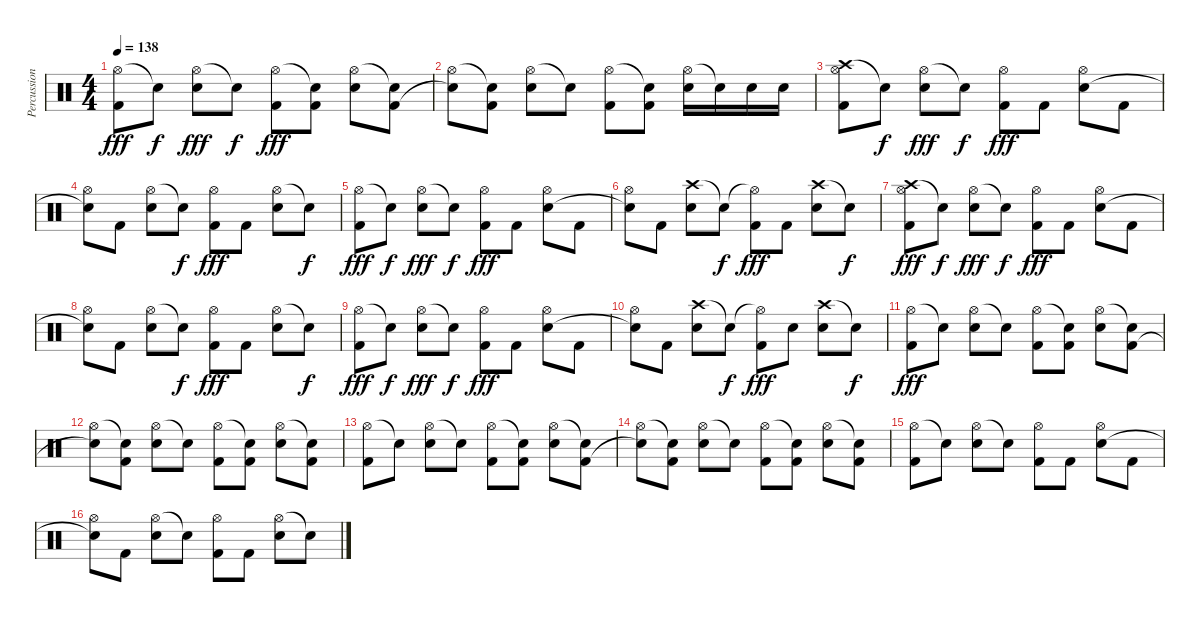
\track ("Percussion" "Percussion") {instrument percussion}
\staff {score}
\articulation defaults
\ts (4 4)
\tempo 138
\clef neutral
\ks c
("Hi-Hat (open)" "Kick (hit) 2").8{dy fff} "Snare (hit)"{t}.8{dy f} ("Hi-Hat (open)" "Electric Snare (hit)").8{dy fff} "Snare (hit)"{t}.8{dy f} ("Hi-Hat (open)" "Kick (hit) 2").8{dy fff} ("Snare (hit)"{t} "Kick (hit) 2").8 ("Hi-Hat (open)" "Electric Snare (hit)").8 ("Snare (hit)"{t} "Kick (hit) 2").8 |
("Hi-Hat (open)" "Snare (hit)"{t}).8 ("Snare (hit)"{t} "Kick (hit) 2").8 ("Hi-Hat (open)" "Electric Snare (hit)").8 "Snare (hit)"{t}.8 ("Hi-Hat (open)" "Kick (hit) 2").8 ("Snare (hit)"{t} "Kick (hit) 2").8 ("Hi-Hat (open)" "Electric Snare (hit)").16 "Snare (hit)"{t}.16 "Electric Snare (hit)".16 "Electric Snare (hit)".16 |
("Crash high (hit)" "Hi-Hat (open)" "Kick (hit) 2").8 "Snare (hit)"{t}.8{dy f} ("Hi-Hat (open)" "Electric Snare (hit)").8{dy fff} "Snare (hit)"{t}.8{dy f} ("Hi-Hat (open)" "Kick (hit) 2").8{dy fff} "Kick (hit) 2".8 ("Hi-Hat (open)" "Electric Snare (hit)").8 "Kick (hit) 2".8 |
("Hi-Hat (open)" "Snare (hit)"{t}).8 "Kick (hit) 2".8 ("Hi-Hat (open)" "Electric Snare (hit)").8 "Snare (hit)"{t}.8{dy f} ("Hi-Hat (open)" "Kick (hit) 2").8{dy fff} "Kick (hit) 2".8 ("Hi-Hat (open)" "Electric Snare (hit)").8 "Snare (hit)"{t}.8{dy f} |
("Hi-Hat (open)" "Kick (hit) 2").8{dy fff} "Snare (hit)"{t}.8{dy f} ("Hi-Hat (open)" "Electric Snare (hit)").8{dy fff} "Snare (hit)"{t}.8{dy f} ("Hi-Hat (open)" "Kick (hit) 2").8{dy fff} "Kick (hit) 2".8 ("Hi-Hat (open)" "Electric Snare (hit)").8 "Kick (hit) 2".8 |
("Hi-Hat (open)" "Snare (hit)"{t}).8 "Kick (hit) 2".8 ("Crash high (hit)" "Electric Snare (hit)").8 "Snare (hit)"{t}.8{dy f} ("Hi-Hat (open)"{t} "Kick (hit) 2").8{dy fff} "Kick (hit) 2".8 ("Crash high (hit)" "Electric Snare (hit)").8 "Snare (hit)"{t}.8{dy f} |
("Crash high (hit)" "Hi-Hat (open)" "Kick (hit) 2").8{dy fff} "Snare (hit)"{t}.8{dy f} ("Hi-Hat (open)" "Electric Snare (hit)").8{dy fff} "Snare (hit)"{t}.8{dy f} ("Hi-Hat (open)" "Kick (hit) 2").8{dy fff} "Kick (hit) 2".8 ("Hi-Hat (open)" "Electric Snare (hit)").8 "Kick (hit) 2".8 |
("Hi-Hat (open)" "Snare (hit)"{t}).8 "Kick (hit) 2".8 ("Hi-Hat (open)" "Electric Snare (hit)").8 "Snare (hit)"{t}.8{dy f} ("Hi-Hat (open)" "Kick (hit) 2").8{dy fff} "Kick (hit) 2".8 ("Hi-Hat (open)" "Electric Snare (hit)").8 "Snare (hit)"{t}.8{dy f} |
("Hi-Hat (open)" "Kick (hit) 2").8{dy fff} "Snare (hit)"{t}.8{dy f} ("Hi-Hat (open)" "Electric Snare (hit)").8{dy fff} "Snare (hit)"{t}.8{dy f} ("Hi-Hat (open)" "Kick (hit) 2").8{dy fff} "Kick (hit) 2".8 ("Hi-Hat (open)" "Electric Snare (hit)").8 "Kick (hit) 2".8 |
("Hi-Hat (open)" "Snare (hit)"{t}).8 "Kick (hit) 2".8 ("Crash high (hit)" "Electric Snare (hit)").8 "Snare (hit)"{t}.8{dy f} ("Hi-Hat (open)"{t} "Kick (hit) 2").8{dy fff} "Electric Snare (hit)".8 ("Crash high (hit)" "Electric Snare (hit)").8 "Snare (hit)"{t}.8{dy f} |
("Hi-Hat (open)" "Kick (hit) 2").8{dy fff} "Snare (hit)"{t}.8 ("Hi-Hat (open)" "Electric Snare (hit)").8 "Snare (hit)"{t}.8 ("Hi-Hat (open)" "Kick (hit) 2").8 ("Snare (hit)"{t} "Kick (hit) 2").8 ("Hi-Hat (open)" "Electric Snare (hit)").8 ("Snare (hit)"{t} "Kick (hit) 2").8 |
("Hi-Hat (open)" "Snare (hit)"{t}).8 ("Snare (hit)"{t} "Kick (hit) 2").8 ("Hi-Hat (open)" "Electric Snare (hit)").8 "Snare (hit)"{t}.8 ("Hi-Hat (open)" "Kick (hit) 2").8 ("Snare (hit)"{t} "Kick (hit) 2").8 ("Hi-Hat (open)" "Electric Snare (hit)").8 ("Snare (hit)"{t} "Kick (hit) 2").8 |
("Hi-Hat (open)" "Kick (hit) 2").8 "Snare (hit)"{t}.8 ("Hi-Hat (open)" "Electric Snare (hit)").8 "Snare (hit)"{t}.8 ("Hi-Hat (open)" "Kick (hit) 2").8 ("Snare (hit)"{t} "Kick (hit) 2").8 ("Hi-Hat (open)" "Electric Snare (hit)").8 ("Snare (hit)"{t} "Kick (hit) 2").8 |
("Hi-Hat (open)" "Snare (hit)"{t}).8 ("Snare (hit)"{t} "Kick (hit) 2").8 ("Hi-Hat (open)" "Electric Snare (hit)").8 "Snare (hit)"{t}.8 ("Hi-Hat (open)" "Kick (hit) 2").8 ("Snare (hit)"{t} "Kick (hit) 2").8 ("Hi-Hat (open)" "Electric Snare (hit)").8 ("Snare (hit)"{t} "Kick (hit) 2").8 |
("Hi-Hat (open)" "Kick (hit) 2").8 "Snare (hit)"{t}.8 ("Hi-Hat (open)" "Electric Snare (hit)").8 "Snare (hit)"{t}.8 ("Hi-Hat (open)" "Kick (hit) 2").8 "Kick (hit) 2".8 ("Hi-Hat (open)" "Electric Snare (hit)").8 "Kick (hit) 2".8 |
("Hi-Hat (open)" "Snare (hit)"{t}).8 "Kick (hit) 2".8 ("Hi-Hat (open)" "Electric Snare (hit)").8 "Snare (hit)"{t}.8 ("Hi-Hat (open)" "Kick (hit) 2").8 "Kick (hit) 2".8 ("Hi-Hat (open)" "Electric Snare (hit)").8 "Snare (hit)"{t}.8
